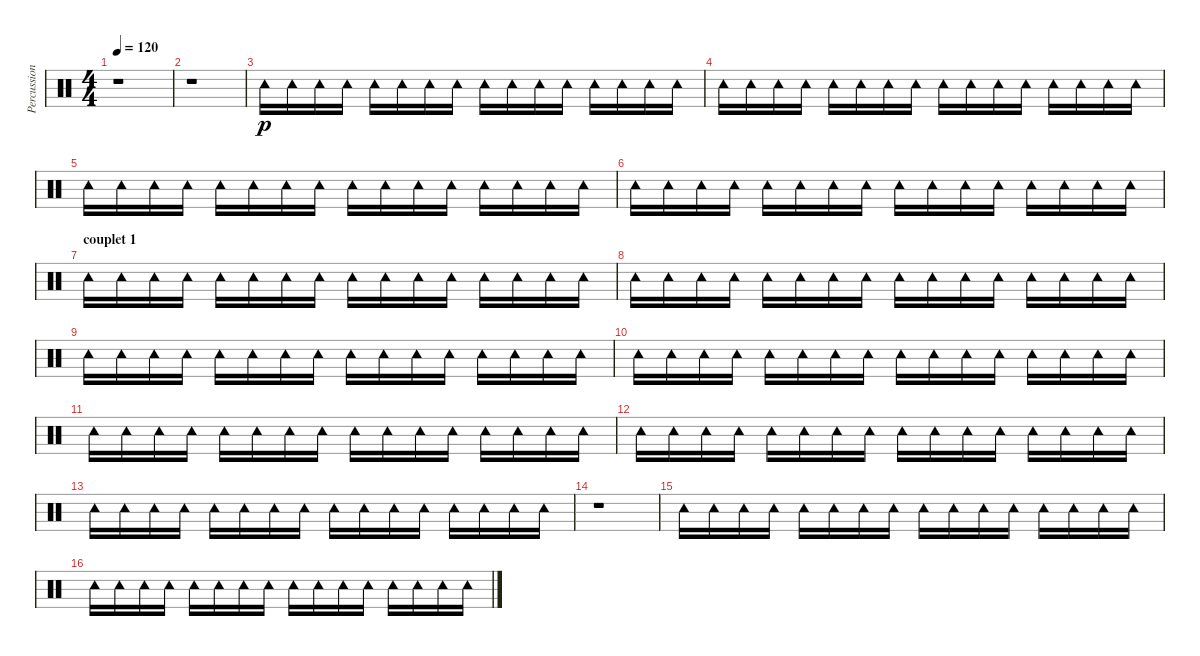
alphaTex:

\track ("Percussions" "Percussion") {instrument percussion}
\staff {score}
\articulation defaults
\ts (4 4)
\tempo 120
\clef neutral
\ks c
r.1{dy p} |
r.1 |
"Tambourine (hit)".16 "Tambourine (hit)".16 "Tambourine (hit)".16 "Tambourine (hit)".16 "Tambourine (hit)".16 "Tambourine (hit)".16 "Tambourine (hit)".16 "Tambourine (hit)".16 "Tambourine (hit)".16 "Tambourine (hit)".16 "Tambourine (hit)".16 "Tambourine (hit)".16 "Tambourine (hit)".16 "Tambourine (hit)".16 "Tambourine (hit)".16 "Tambourine (hit)".16 |
"Tambourine (hit)".16 "Tambourine (hit)".16 "Tambourine (hit)".16 "Tambourine (hit)".16 "Tambourine (hit)".16 "Tambourine (hit)".16 "Tambourine (hit)".16 "Tambourine (hit)".16 "Tambourine (hit)".16 "Tambourine (hit)".16 "Tambourine (hit)".16 "Tambourine (hit)".16 "Tambourine (hit)".16 "Tambourine (hit)".16 "Tambourine (hit)".16 "Tambourine (hit)".16 |
"Tambourine (hit)".16 "Tambourine (hit)".16 "Tambourine (hit)".16 "Tambourine (hit)".16 "Tambourine (hit)".16 "Tambourine (hit)".16 "Tambourine (hit)".16 "Tambourine (hit)".16 "Tambourine (hit)".16 "Tambourine (hit)".16 "Tambourine (hit)".16 "Tambourine (hit)".16 "Tambourine (hit)".16 "Tambourine (hit)".16 "Tambourine (hit)".16 "Tambourine (hit)".16 |
"Tambourine (hit)".16 "Tambourine (hit)".16 "Tambourine (hit)".16 "Tambourine (hit)".16 "Tambourine (hit)".16 "Tambourine (hit)".16 "Tambourine (hit)".16 "Tambourine (hit)".16 "Tambourine (hit)".16 "Tambourine (hit)".16 "Tambourine (hit)".16 "Tambourine (hit)".16 "Tambourine (hit)".16 "Tambourine (hit)".16 "Tambourine (hit)".16 "Tambourine (hit)".16 |
\section ("" "couplet 1")
"Tambourine (hit)".16 "Tambourine (hit)".16 "Tambourine (hit)".16 "Tambourine (hit)".16 "Tambourine (hit)".16 "Tambourine (hit)".16 "Tambourine (hit)".16 "Tambourine (hit)".16 "Tambourine (hit)".16 "Tambourine (hit)".16 "Tambourine (hit)".16 "Tambourine (hit)".16 "Tambourine (hit)".16 "Tambourine (hit)".16 "Tambourine (hit)".16 "Tambourine (hit)".16 |
"Tambourine (hit)".16 "Tambourine (hit)".16 "Tambourine (hit)".16 "Tambourine (hit)".16 "Tambourine (hit)".16 "Tambourine (hit)".16 "Tambourine (hit)".16 "Tambourine (hit)".16 "Tambourine (hit)".16 "Tambourine (hit)".16 "Tambourine (hit)".16 "Tambourine (hit)".16 "Tambourine (hit)".16 "Tambourine (hit)".16 "Tambourine (hit)".16 "Tambourine (hit)".16 |
"Tambourine (hit)".16 "Tambourine (hit)".16 "Tambourine (hit)".16 "Tambourine (hit)".16 "Tambourine (hit)".16 "Tambourine (hit)".16 "Tambourine (hit)".16 "Tambourine (hit)".16 "Tambourine (hit)".16 "Tambourine (hit)".16 "Tambourine (hit)".16 "Tambourine (hit)".16 "Tambourine (hit)".16 "Tambourine (hit)".16 "Tambourine (hit)".16 "Tambourine (hit)".16 |
"Tambourine (hit)".16 "Tambourine (hit)".16 "Tambourine (hit)".16 "Tambourine (hit)".16 "Tambourine (hit)".16 "Tambourine (hit)".16 "Tambourine (hit)".16 "Tambourine (hit)".16 "Tambourine (hit)".16 "Tambourine (hit)".16 "Tambourine (hit)".16 "Tambourine (hit)".16 "Tambourine (hit)".16 "Tambourine (hit)".16 "Tambourine (hit)".16 "Tambourine (hit)".16 |
"Tambourine (hit)".16 "Tambourine (hit)".16 "Tambourine (hit)".16 "Tambourine (hit)".16 "Tambourine (hit)".16 "Tambourine (hit)".16 "Tambourine (hit)".16 "Tambourine (hit)".16 "Tambourine (hit)".16 "Tambourine (hit)".16 "Tambourine (hit)".16 "Tambourine (hit)".16 "Tambourine (hit)".16 "Tambourine (hit)".16 "Tambourine (hit)".16 "Tambourine (hit)".16 |
"Tambourine (hit)".16 "Tambourine (hit)".16 "Tambourine (hit)".16 "Tambourine (hit)".16 "Tambourine (hit)".16 "Tambourine (hit)".16 "Tambourine (hit)".16 "Tambourine (hit)".16 "Tambourine (hit)".16 "Tambourine (hit)".16 "Tambourine (hit)".16 "Tambourine (hit)".16 "Tambourine (hit)".16 "Tambourine (hit)".16 "Tambourine (hit)".16 "Tambourine (hit)".16 |
"Tambourine (hit)".16 "Tambourine (hit)".16 "Tambourine (hit)".16 "Tambourine (hit)".16 "Tambourine (hit)".16 "Tambourine (hit)".16 "Tambourine (hit)".16 "Tambourine (hit)".16 "Tambourine (hit)".16 "Tambourine (hit)".16 "Tambourine (hit)".16 "Tambourine (hit)".16 "Tambourine (hit)".16 "Tambourine (hit)".16 "Tambourine (hit)".16 "Tambourine (hit)".16 |
r.1 |
"Tambourine (hit)".16 "Tambourine (hit)".16 "Tambourine (hit)".16 "Tambourine (hit)".16 "Tambourine (hit)".16 "Tambourine (hit)".16 "Tambourine (hit)".16 "Tambourine (hit)".16 "Tambourine (hit)".16 "Tambourine (hit)".16 "Tambourine (hit)".16 "Tambourine (hit)".16 "Tambourine (hit)".16 "Tambourine (hit)".16 "Tambourine (hit)".16 "Tambourine (hit)".16 |
"Tambourine (hit)".16 "Tambourine (hit)".16 "Tambourine (hit)".16 "Tambourine (hit)".16 "Tambourine (hit)".16 "Tambourine (hit)".16 "Tambourine (hit)".16 "Tambourine (hit)".16 "Tambourine (hit)".16 "Tambourine (hit)".16 "Tambourine (hit)".16 "Tambourine (hit)".16 "Tambourine (hit)".16 "Tambourine (hit)".16 "Tambourine (hit)".16 "Tambourine (hit)".16
